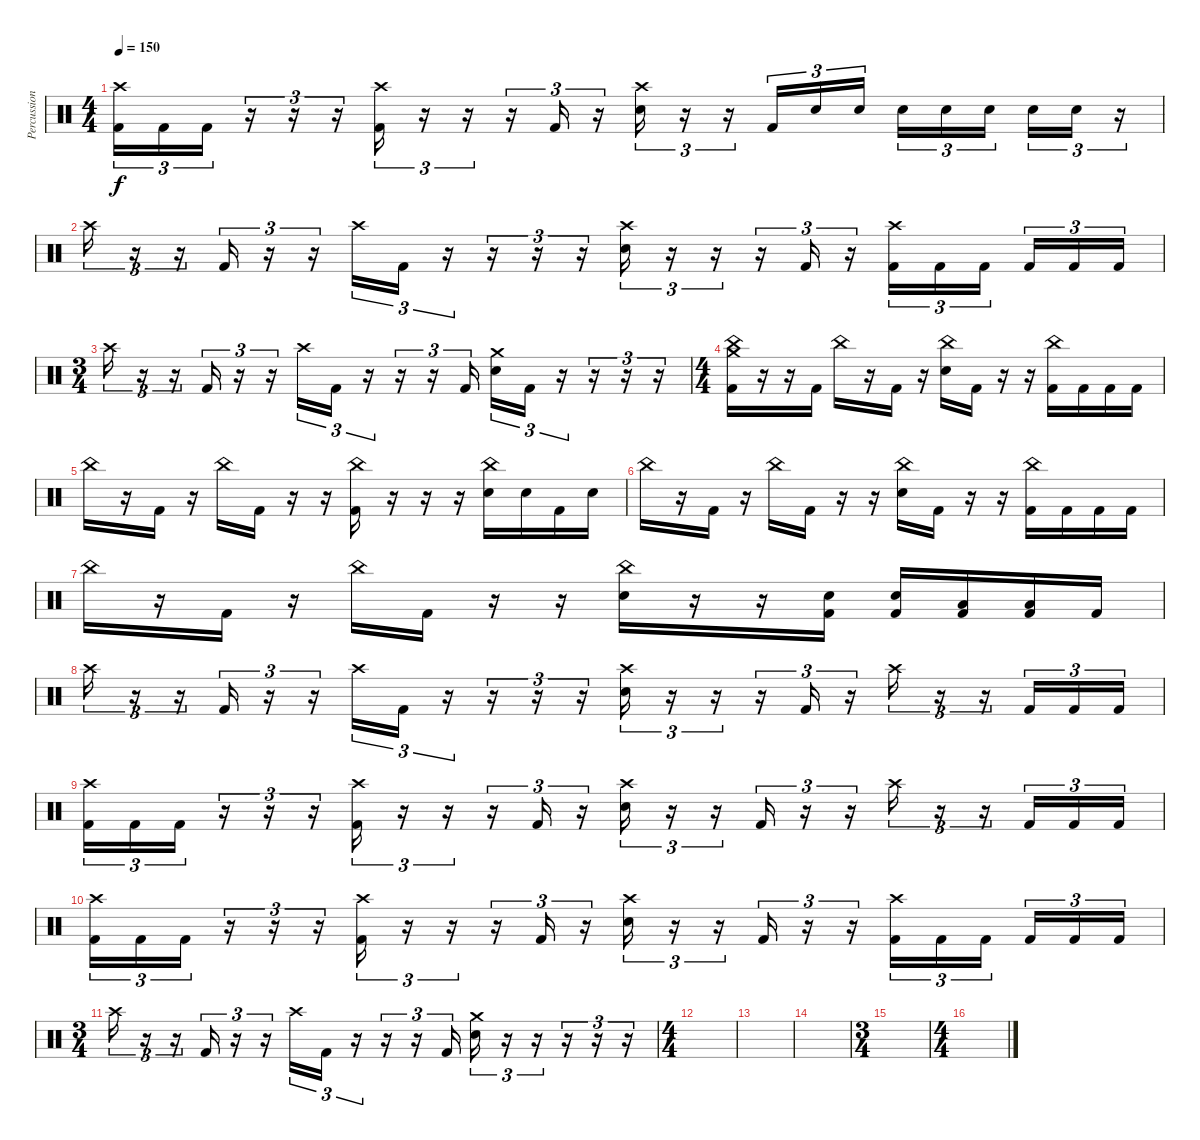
\track ("Percussion" "Percussion") {instrument percussion}
\staff {score}
\articulation defaults
\ts (4 4)
\tempo 150
\clef neutral
\ks c
("Crash high (hit)" "Kick (hit) 2").16{tu (3 2) dy f} "Kick (hit) 2".16{tu (3 2)} "Kick (hit) 2".16{tu (3 2)} r.16{tu (3 2)} r.16{tu (3 2)} r.16{tu (3 2)} ("Crash high (hit)" "Kick (hit) 2").16{tu (3 2)} r.16{tu (3 2)} r.16{tu (3 2)} r.16{tu (3 2)} "Kick (hit) 2".16{tu (3 2)} r.16{tu (3 2)} ("Crash high (hit)" "Snare (hit) 2").16{tu (3 2)} r.16{tu (3 2)} r.16{tu (3 2)} "Kick (hit) 2".16{tu (3 2)} "Snare (hit) 2".16{tu (3 2)} "Snare (hit) 2".16{tu (3 2)} "Snare (hit) 2".16{tu (3 2)} "Snare (hit) 2".16{tu (3 2)} "Snare (hit) 2".16{tu (3 2) beam splitsecondary} "Snare (hit) 2".16{tu (3 2)} "Snare (hit) 2".16{tu (3 2)} r.16{tu (3 2)} |
"Crash high (hit)".16{tu (3 2)} r.16{tu (3 2)} r.16{tu (3 2)} "Kick (hit) 2".16{tu (3 2)} r.16{tu (3 2)} r.16{tu (3 2)} "Crash high (hit)".16{tu (3 2)} "Kick (hit) 2".16{tu (3 2)} r.16{tu (3 2)} r.16{tu (3 2)} r.16{tu (3 2)} r.16{tu (3 2)} ("Crash high (hit)" "Snare (hit) 2").16{tu (3 2)} r.16{tu (3 2)} r.16{tu (3 2)} r.16{tu (3 2)} "Kick (hit) 2".16{tu (3 2)} r.16{tu (3 2)} ("Crash high (hit)" "Kick (hit) 2").16{tu (3 2)} "Kick (hit) 2".16{tu (3 2)} "Kick (hit) 2".16{tu (3 2) beam splitsecondary} "Kick (hit) 2".16{tu (3 2)} "Kick (hit) 2".16{tu (3 2)} "Kick (hit) 2".16{tu (3 2)} |
\ts (3 4)
"Crash high (hit)".16{tu (3 2)} r.16{tu (3 2)} r.16{tu (3 2)} "Kick (hit) 2".16{tu (3 2)} r.16{tu (3 2)} r.16{tu (3 2)} "Crash high (hit)".16{tu (3 2)} "Kick (hit) 2".16{tu (3 2)} r.16{tu (3 2)} r.16{tu (3 2)} r.16{tu (3 2)} "Kick (hit) 2".16{tu (3 2)} ("Crash medium (hit)" "Snare (hit) 2").16{tu (3 2)} "Kick (hit) 2".16{tu (3 2)} r.16{tu (3 2)} r.16{tu (3 2)} r.16{tu (3 2)} r.16{tu (3 2)} |
\ts (4 4)
("Crash medium (hit)" "China (hit)" "Kick (hit) 2").16 r.16 r.16 "Kick (hit) 2".16 "China (hit)".16 r.16 "Kick (hit) 2".16 r.16 ("China (hit)" "Snare (hit) 2").16 "Kick (hit) 2".16 r.16 r.16 ("China (hit)" "Kick (hit) 2").16 "Kick (hit) 2".16 "Kick (hit) 2".16 "Kick (hit) 2".16 |
"China (hit)".16 r.16 "Kick (hit) 2".16 r.16 "China (hit)".16 "Kick (hit) 2".16 r.16 r.16 ("China (hit)" "Kick (hit) 2").16 r.16 r.16 r.16 ("China (hit)" "Snare (hit) 2").16 "Snare (hit) 2".16 "Kick (hit) 2".16 "Snare (hit) 2".16 |
"China (hit)".16 r.16 "Kick (hit) 2".16 r.16 "China (hit)".16 "Kick (hit) 2".16 r.16 r.16 ("China (hit)" "Snare (hit) 2").16 "Kick (hit) 2".16 r.16 r.16 ("China (hit)" "Kick (hit) 2").16 "Kick (hit) 2".16 "Kick (hit) 2".16 "Kick (hit) 2".16 |
"China (hit)".16 r.16 "Kick (hit) 2".16 r.16 "China (hit)".16 "Kick (hit) 2".16 r.16 r.16 ("China (hit)" "Snare (hit) 2").16 r.16 r.16 ("Snare (hit) 2" "Kick (hit) 2").16 ("Snare (hit) 2" "Kick (hit) 2").16 ("Low Tom (hit)" "Kick (hit) 2").16 ("Low Floor Tom (hit)" "Kick (hit) 2").16 "Kick (hit) 2".16 |
"Crash high (hit)".16{tu (3 2)} r.16{tu (3 2)} r.16{tu (3 2)} "Kick (hit) 2".16{tu (3 2)} r.16{tu (3 2)} r.16{tu (3 2)} "Crash high (hit)".16{tu (3 2)} "Kick (hit) 2".16{tu (3 2)} r.16{tu (3 2)} r.16{tu (3 2)} r.16{tu (3 2)} r.16{tu (3 2)} ("Crash high (hit)" "Snare (hit) 2").16{tu (3 2)} r.16{tu (3 2)} r.16{tu (3 2)} r.16{tu (3 2)} "Kick (hit) 2".16{tu (3 2)} r.16{tu (3 2)} "Crash high (hit)".16{tu (3 2)} r.16{tu (3 2)} r.16{tu (3 2)} "Kick (hit) 2".16{tu (3 2)} "Kick (hit) 2".16{tu (3 2)} "Kick (hit) 2".16{tu (3 2)} |
("Crash high (hit)" "Kick (hit) 2").16{tu (3 2)} "Kick (hit) 2".16{tu (3 2)} "Kick (hit) 2".16{tu (3 2)} r.16{tu (3 2)} r.16{tu (3 2)} r.16{tu (3 2)} ("Crash high (hit)" "Kick (hit) 2").16{tu (3 2)} r.16{tu (3 2)} r.16{tu (3 2)} r.16{tu (3 2)} "Kick (hit) 2".16{tu (3 2)} r.16{tu (3 2)} ("Crash high (hit)" "Snare (hit) 2").16{tu (3 2)} r.16{tu (3 2)} r.16{tu (3 2)} "Kick (hit) 2".16{tu (3 2)} r.16{tu (3 2)} r.16{tu (3 2)} "Crash high (hit)".16{tu (3 2)} r.16{tu (3 2)} r.16{tu (3 2)} "Kick (hit) 2".16{tu (3 2)} "Kick (hit) 2".16{tu (3 2)} "Kick (hit) 2".16{tu (3 2)} |
("Crash high (hit)" "Kick (hit) 2").16{tu (3 2)} "Kick (hit) 2".16{tu (3 2)} "Kick (hit) 2".16{tu (3 2)} r.16{tu (3 2)} r.16{tu (3 2)} r.16{tu (3 2)} ("Crash high (hit)" "Kick (hit) 2").16{tu (3 2)} r.16{tu (3 2)} r.16{tu (3 2)} r.16{tu (3 2)} "Kick (hit) 2".16{tu (3 2)} r.16{tu (3 2)} ("Crash high (hit)" "Snare (hit) 2").16{tu (3 2)} r.16{tu (3 2)} r.16{tu (3 2)} "Kick (hit) 2".16{tu (3 2)} r.16{tu (3 2)} r.16{tu (3 2)} ("Crash high (hit)" "Kick (hit) 2").16{tu (3 2)} "Kick (hit) 2".16{tu (3 2)} "Kick (hit) 2".16{tu (3 2) beam splitsecondary} "Kick (hit) 2".16{tu (3 2)} "Kick (hit) 2".16{tu (3 2)} "Kick (hit) 2".16{tu (3 2)} |
\ts (3 4)
"Crash high (hit)".16{tu (3 2)} r.16{tu (3 2)} r.16{tu (3 2)} "Kick (hit) 2".16{tu (3 2)} r.16{tu (3 2)} r.16{tu (3 2)} "Crash high (hit)".16{tu (3 2)} "Kick (hit) 2".16{tu (3 2)} r.16{tu (3 2)} r.16{tu (3 2)} r.16{tu (3 2)} "Kick (hit) 2".16{tu (3 2)} ("Crash medium (hit)" "Snare (hit) 2").16{tu (3 2)} r.16{tu (3 2)} r.16{tu (3 2)} r.16{tu (3 2)} r.16{tu (3 2)} r.16{tu (3 2)} |
\ts (4 4)
|
|
|
\ts (3 4)
|
\ts (4 4)
